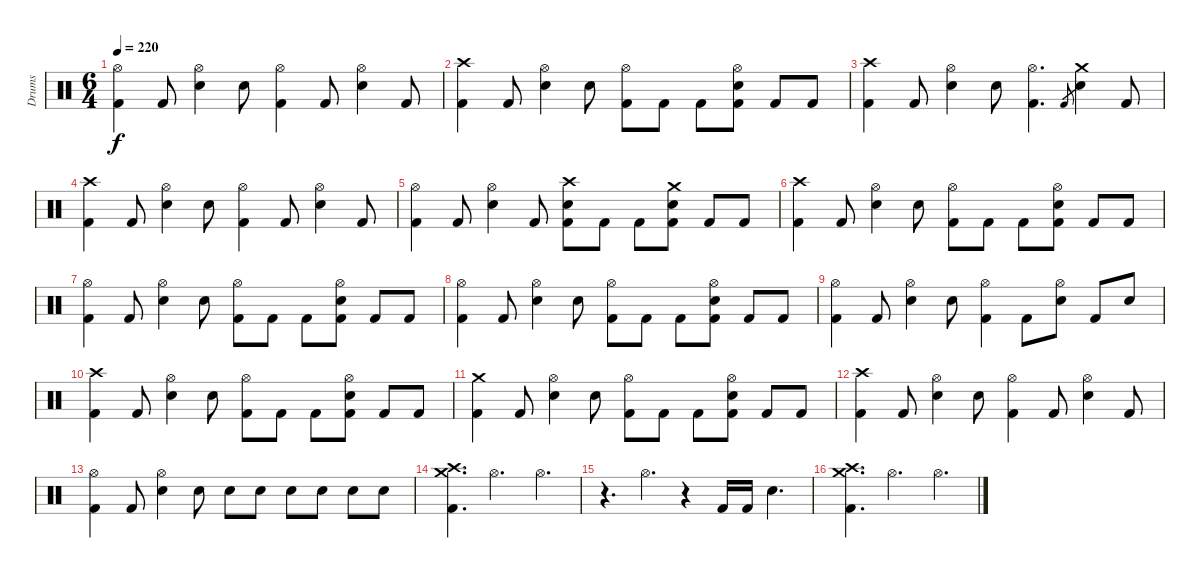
\track ("Drums" "Drums") {instrument percussion}
\staff {score}
\articulation defaults
\ts (6 4)
\tempo 220
\clef neutral
\ks c
("Hi-Hat (open)" "Kick (hit) 2").4{dy f} "Kick (hit) 2".8 ("Hi-Hat (open)" "Electric Snare (hit)").4 "Electric Snare (hit)".8 ("Hi-Hat (open)" "Kick (hit) 2").4 "Kick (hit) 2".8 ("Hi-Hat (open)" "Electric Snare (hit)").4 "Kick (hit) 2".8 |
("Crash high (hit)" "Kick (hit) 2").4 "Kick (hit) 2".8 ("Hi-Hat (open)" "Electric Snare (hit)").4 "Electric Snare (hit)".8 ("Hi-Hat (open)" "Kick (hit) 2").8 "Kick (hit) 2".8 "Kick (hit) 2".8 ("Hi-Hat (open)" "Electric Snare (hit)" "Kick (hit) 2").8 "Kick (hit) 2".8 "Kick (hit) 2".8 |
("Crash high (hit)" "Kick (hit) 2").4 "Kick (hit) 2".8 ("Hi-Hat (open)" "Electric Snare (hit)").4 "Electric Snare (hit)".8 ("Hi-Hat (open)" "Kick (hit) 2").4{d} "Kick (hit) 2".8{gr} ("Crash medium (hit)" "Electric Snare (hit)").4 "Kick (hit) 2".8 |
("Crash high (hit)" "Kick (hit) 2").4 "Kick (hit) 2".8 ("Hi-Hat (open)" "Electric Snare (hit)").4 "Electric Snare (hit)".8 ("Hi-Hat (open)" "Kick (hit) 2").4 "Kick (hit) 2".8 ("Hi-Hat (open)" "Electric Snare (hit)").4 "Kick (hit) 2".8 |
("Hi-Hat (open)" "Kick (hit) 2").4 "Kick (hit) 2".8 ("Hi-Hat (open)" "Electric Snare (hit)").4 "Kick (hit) 2".8 ("Crash high (hit)" "Electric Snare (hit)" "Kick (hit) 2").8 "Kick (hit) 2".8 "Kick (hit) 2".8 ("Crash medium (hit)" "Electric Snare (hit)" "Kick (hit) 2").8 "Kick (hit) 2".8 "Kick (hit) 2".8 |
("Crash high (hit)" "Kick (hit) 2").4 "Kick (hit) 2".8 ("Hi-Hat (open)" "Electric Snare (hit)").4 "Electric Snare (hit)".8 ("Hi-Hat (open)" "Kick (hit) 2").8 "Kick (hit) 2".8 "Kick (hit) 2".8 ("Hi-Hat (open)" "Electric Snare (hit)" "Kick (hit) 2").8 "Kick (hit) 2".8 "Kick (hit) 2".8 |
("Hi-Hat (open)" "Kick (hit) 2").4 "Kick (hit) 2".8 ("Hi-Hat (open)" "Electric Snare (hit)").4 "Electric Snare (hit)".8 ("Hi-Hat (open)" "Kick (hit) 2").8 "Kick (hit) 2".8 "Kick (hit) 2".8 ("Hi-Hat (open)" "Electric Snare (hit)" "Kick (hit) 2").8 "Kick (hit) 2".8 "Kick (hit) 2".8 |
("Hi-Hat (open)" "Kick (hit) 2").4 "Kick (hit) 2".8 ("Hi-Hat (open)" "Electric Snare (hit)").4 "Electric Snare (hit)".8 ("Hi-Hat (open)" "Kick (hit) 2").8 "Kick (hit) 2".8 "Kick (hit) 2".8 ("Hi-Hat (open)" "Electric Snare (hit)" "Kick (hit) 2").8 "Kick (hit) 2".8 "Kick (hit) 2".8 |
("Hi-Hat (open)" "Kick (hit) 2").4 "Kick (hit) 2".8 ("Hi-Hat (open)" "Electric Snare (hit)").4 "Electric Snare (hit)".8 ("Hi-Hat (open)" "Kick (hit) 2").4 "Kick (hit) 2".8 ("Hi-Hat (open)" "Electric Snare (hit)").8 "Kick (hit) 2".8 "Electric Snare (hit)".8 |
("Crash high (hit)" "Kick (hit) 2").4 "Kick (hit) 2".8 ("Hi-Hat (open)" "Electric Snare (hit)").4 "Electric Snare (hit)".8 ("Hi-Hat (open)" "Kick (hit) 2").8 "Kick (hit) 2".8 "Kick (hit) 2".8 ("Hi-Hat (open)" "Electric Snare (hit)" "Kick (hit) 2").8 "Kick (hit) 2".8 "Kick (hit) 2".8 |
("Crash medium (hit)" "Kick (hit) 2").4 "Kick (hit) 2".8 ("Hi-Hat (open)" "Electric Snare (hit)").4 "Electric Snare (hit)".8 ("Hi-Hat (open)" "Kick (hit) 2").8 "Kick (hit) 2".8 "Kick (hit) 2".8 ("Hi-Hat (open)" "Electric Snare (hit)" "Kick (hit) 2").8 "Kick (hit) 2".8 "Kick (hit) 2".8 |
("Crash high (hit)" "Kick (hit) 2").4 "Kick (hit) 2".8 ("Hi-Hat (open)" "Electric Snare (hit)").4 "Electric Snare (hit)".8 ("Hi-Hat (open)" "Kick (hit) 2").4 "Kick (hit) 2".8 ("Hi-Hat (open)" "Electric Snare (hit)").4 "Kick (hit) 2".8 |
("Hi-Hat (open)" "Kick (hit) 2").4 "Kick (hit) 2".8 ("Hi-Hat (open)" "Electric Snare (hit)").4 "Electric Snare (hit)".8 "Electric Snare (hit)".8 "Electric Snare (hit)".8 "Electric Snare (hit)".8 "Electric Snare (hit)".8 "Electric Snare (hit)".8 "Electric Snare (hit)".8 |
("Crash medium (hit)" "Crash high (hit)" "Kick (hit) 2").4{d} "Hi-Hat (open)".2{d} "Hi-Hat (open)".4{d} |
r.4{d} "Hi-Hat (open)".4{d} r.4 "Kick (hit) 2".16 "Kick (hit) 2".16 "Electric Snare (hit)".4{d} |
("Crash medium (hit)" "Crash high (hit)" "Kick (hit) 2").4{d} "Hi-Hat (open)".2{d} "Hi-Hat (open)".4{d}
